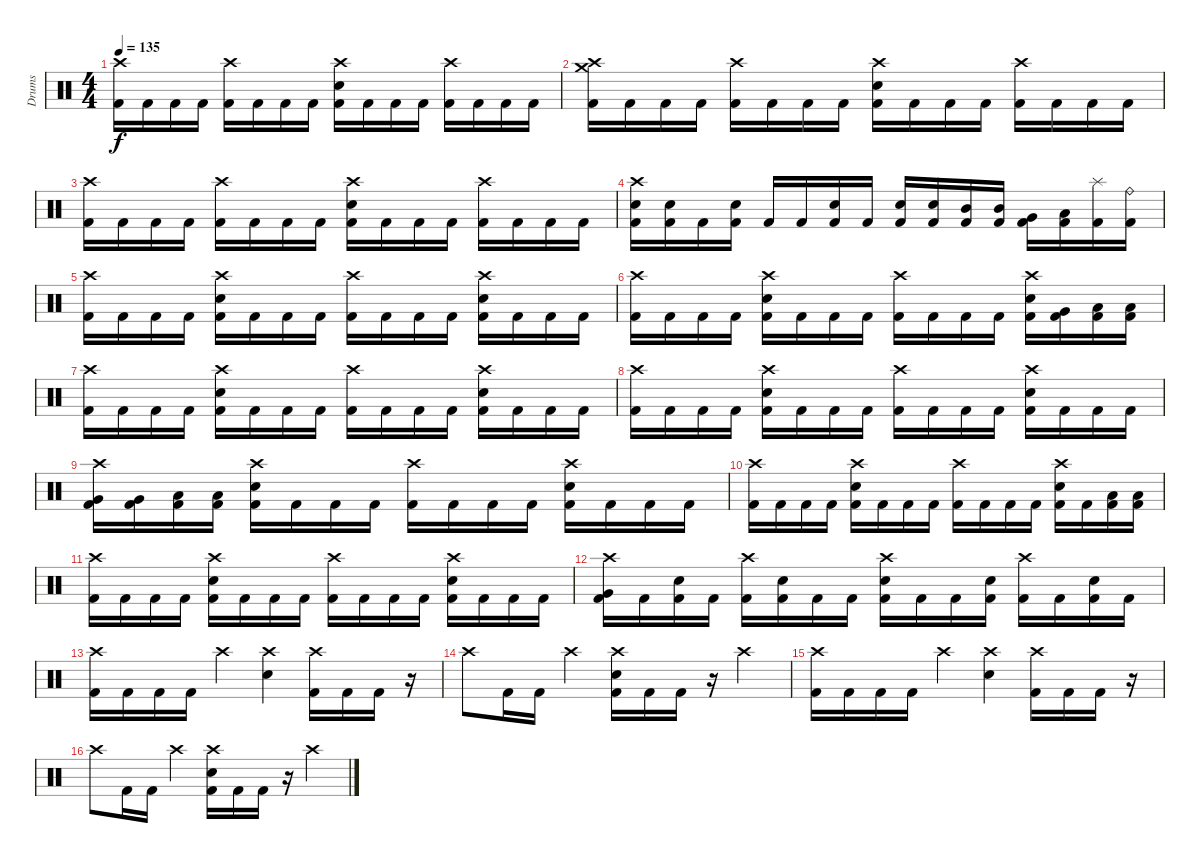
\track ("Drums" "Drums") {instrument percussion}
\staff {score}
\articulation defaults
\ts (4 4)
\tempo 135
\clef neutral
\ks c
("Crash high (hit)" "Kick (hit) 2").16{dy f} "Kick (hit) 2".16 "Kick (hit) 2".16 "Kick (hit) 2".16 ("Crash high (hit)" "Kick (hit) 2").16 "Kick (hit) 2".16 "Kick (hit) 2".16 "Kick (hit) 2".16 ("Crash high (hit)" "Kick (hit) 2" "Electric Snare (hit)").16 "Kick (hit) 2".16 "Kick (hit) 2".16 "Kick (hit) 2".16 ("Crash high (hit)" "Kick (hit) 2").16 "Kick (hit) 2".16 "Kick (hit) 2".16 "Kick (hit) 2".16 |
("Crash high (hit)" "Kick (hit) 2" "Crash medium (hit)").16 "Kick (hit) 2".16 "Kick (hit) 2".16 "Kick (hit) 2".16 ("Crash high (hit)" "Kick (hit) 2").16 "Kick (hit) 2".16 "Kick (hit) 2".16 "Kick (hit) 2".16 ("Crash high (hit)" "Kick (hit) 2" "Electric Snare (hit)").16 "Kick (hit) 2".16 "Kick (hit) 2".16 "Kick (hit) 2".16 ("Crash high (hit)" "Kick (hit) 2").16 "Kick (hit) 2".16 "Kick (hit) 2".16 "Kick (hit) 2".16 |
("Crash high (hit)" "Kick (hit) 2").16 "Kick (hit) 2".16 "Kick (hit) 2".16 "Kick (hit) 2".16 ("Crash high (hit)" "Kick (hit) 2").16 "Kick (hit) 2".16 "Kick (hit) 2".16 "Kick (hit) 2".16 ("Crash high (hit)" "Kick (hit) 2" "Electric Snare (hit)").16 "Kick (hit) 2".16 "Kick (hit) 2".16 "Kick (hit) 2".16 ("Crash high (hit)" "Kick (hit) 2").16 "Kick (hit) 2".16 "Kick (hit) 2".16 "Kick (hit) 2".16 |
("Crash high (hit)" "Kick (hit) 2" "Electric Snare (hit)").16 ("Kick (hit) 2" "Electric Snare (hit)").16 "Kick (hit) 2".16 ("Kick (hit) 2" "Electric Snare (hit)").16 "Kick (hit) 2".16 "Kick (hit) 2".16 ("Kick (hit) 2" "Electric Snare (hit)").16 "Kick (hit) 2".16 ("Kick (hit) 2" "Electric Snare (hit)").16 ("Kick (hit) 2" "Electric Snare (hit)").16 ("Kick (hit) 2" "Mid Tom (hit)").16 ("Kick (hit) 2" "Mid Tom (hit)").16 ("Kick (hit) 2" "Very Low Tom (hit)").16 ("Kick (hit) 2" "Low Floor Tom (hit)").16 ("Kick (hit) 2" "Splash (hit)").16 ("Kick (hit) 2" "Ride (bell)").16 |
("Crash high (hit)" "Kick (hit) 2").16 "Kick (hit) 2".16 "Kick (hit) 2".16 "Kick (hit) 2".16 ("Crash high (hit)" "Kick (hit) 2" "Electric Snare (hit)").16 "Kick (hit) 2".16 "Kick (hit) 2".16 "Kick (hit) 2".16 ("Crash high (hit)" "Kick (hit) 2").16 "Kick (hit) 2".16 "Kick (hit) 2".16 "Kick (hit) 2".16 ("Crash high (hit)" "Kick (hit) 2" "Electric Snare (hit)").16 "Kick (hit) 2".16 "Kick (hit) 2".16 "Kick (hit) 2".16 |
("Crash high (hit)" "Kick (hit) 2").16 "Kick (hit) 2".16 "Kick (hit) 2".16 "Kick (hit) 2".16 ("Crash high (hit)" "Kick (hit) 2" "Electric Snare (hit)").16 "Kick (hit) 2".16 "Kick (hit) 2".16 "Kick (hit) 2".16 ("Crash high (hit)" "Kick (hit) 2").16 "Kick (hit) 2".16 "Kick (hit) 2".16 "Kick (hit) 2".16 ("Crash high (hit)" "Kick (hit) 2" "Electric Snare (hit)").16 ("Kick (hit) 2" "Very Low Tom (hit)").16 ("Kick (hit) 2" "Low Floor Tom (hit)").16 ("Kick (hit) 2" "Low Floor Tom (hit)").16 |
("Crash high (hit)" "Kick (hit) 2").16 "Kick (hit) 2".16 "Kick (hit) 2".16 "Kick (hit) 2".16 ("Crash high (hit)" "Kick (hit) 2" "Electric Snare (hit)").16 "Kick (hit) 2".16 "Kick (hit) 2".16 "Kick (hit) 2".16 ("Crash high (hit)" "Kick (hit) 2").16 "Kick (hit) 2".16 "Kick (hit) 2".16 "Kick (hit) 2".16 ("Crash high (hit)" "Kick (hit) 2" "Electric Snare (hit)").16 "Kick (hit) 2".16 "Kick (hit) 2".16 "Kick (hit) 2".16 |
("Crash high (hit)" "Kick (hit) 2").16 "Kick (hit) 2".16 "Kick (hit) 2".16 "Kick (hit) 2".16 ("Crash high (hit)" "Kick (hit) 2" "Electric Snare (hit)").16 "Kick (hit) 2".16 "Kick (hit) 2".16 "Kick (hit) 2".16 ("Crash high (hit)" "Kick (hit) 2").16 "Kick (hit) 2".16 "Kick (hit) 2".16 "Kick (hit) 2".16 ("Crash high (hit)" "Kick (hit) 2" "Electric Snare (hit)").16 "Kick (hit) 2".16 "Kick (hit) 2".16 "Kick (hit) 2".16 |
("Crash high (hit)" "Kick (hit) 2" "Very Low Tom (hit)").16 ("Kick (hit) 2" "Very Low Tom (hit)").16 ("Kick (hit) 2" "Low Floor Tom (hit)").16 ("Kick (hit) 2" "Low Floor Tom (hit)").16 ("Crash high (hit)" "Kick (hit) 2" "Electric Snare (hit)").16 "Kick (hit) 2".16 "Kick (hit) 2".16 "Kick (hit) 2".16 ("Crash high (hit)" "Kick (hit) 2").16 "Kick (hit) 2".16 "Kick (hit) 2".16 "Kick (hit) 2".16 ("Crash high (hit)" "Kick (hit) 2" "Electric Snare (hit)").16 "Kick (hit) 2".16 "Kick (hit) 2".16 "Kick (hit) 2".16 |
("Crash high (hit)" "Kick (hit) 2").16 "Kick (hit) 2".16 "Kick (hit) 2".16 "Kick (hit) 2".16 ("Crash high (hit)" "Kick (hit) 2" "Electric Snare (hit)").16 "Kick (hit) 2".16 "Kick (hit) 2".16 "Kick (hit) 2".16 ("Crash high (hit)" "Kick (hit) 2").16 "Kick (hit) 2".16 "Kick (hit) 2".16 "Kick (hit) 2".16 ("Crash high (hit)" "Kick (hit) 2" "Electric Snare (hit)").16 "Kick (hit) 2".16 ("Kick (hit) 2" "Low Floor Tom (hit)").16 ("Kick (hit) 2" "Low Floor Tom (hit)").16 |
("Crash high (hit)" "Kick (hit) 2").16 "Kick (hit) 2".16 "Kick (hit) 2".16 "Kick (hit) 2".16 ("Crash high (hit)" "Kick (hit) 2" "Electric Snare (hit)").16 "Kick (hit) 2".16 "Kick (hit) 2".16 "Kick (hit) 2".16 ("Crash high (hit)" "Kick (hit) 2").16 "Kick (hit) 2".16 "Kick (hit) 2".16 "Kick (hit) 2".16 ("Crash high (hit)" "Kick (hit) 2" "Electric Snare (hit)").16 "Kick (hit) 2".16 "Kick (hit) 2".16 "Kick (hit) 2".16 |
("Crash high (hit)" "Kick (hit) 2" "Very Low Tom (hit)").16 "Kick (hit) 2".16 ("Kick (hit) 2" "Electric Snare (hit)").16 "Kick (hit) 2".16 ("Crash high (hit)" "Kick (hit) 2").16 ("Kick (hit) 2" "Electric Snare (hit)").16 "Kick (hit) 2".16 "Kick (hit) 2".16 ("Crash high (hit)" "Kick (hit) 2" "Electric Snare (hit)").16 "Kick (hit) 2".16 "Kick (hit) 2".16 ("Kick (hit) 2" "Electric Snare (hit)").16 ("Crash high (hit)" "Kick (hit) 2").16 "Kick (hit) 2".16 ("Kick (hit) 2" "Electric Snare (hit)").16 "Kick (hit) 2".16 |
("Crash high (hit)" "Kick (hit) 2").16 "Kick (hit) 2".16 "Kick (hit) 2".16 "Kick (hit) 2".16 "Crash high (hit)".4 ("Crash high (hit)" "Electric Snare (hit)").4 ("Crash high (hit)" "Kick (hit) 2").16 "Kick (hit) 2".16 "Kick (hit) 2".16 r.16 |
"Crash high (hit)".8 "Kick (hit) 2".16 "Kick (hit) 2".16 "Crash high (hit)".4 ("Crash high (hit)" "Kick (hit) 2" "Electric Snare (hit)").16 "Kick (hit) 2".16 "Kick (hit) 2".16 r.16 "Crash high (hit)".4 |
("Crash high (hit)" "Kick (hit) 2").16 "Kick (hit) 2".16 "Kick (hit) 2".16 "Kick (hit) 2".16 "Crash high (hit)".4 ("Crash high (hit)" "Electric Snare (hit)").4 ("Crash high (hit)" "Kick (hit) 2").16 "Kick (hit) 2".16 "Kick (hit) 2".16 r.16 |
"Crash high (hit)".8 "Kick (hit) 2".16 "Kick (hit) 2".16 "Crash high (hit)".4 ("Crash high (hit)" "Kick (hit) 2" "Electric Snare (hit)").16 "Kick (hit) 2".16 "Kick (hit) 2".16 r.16 "Crash high (hit)".4
